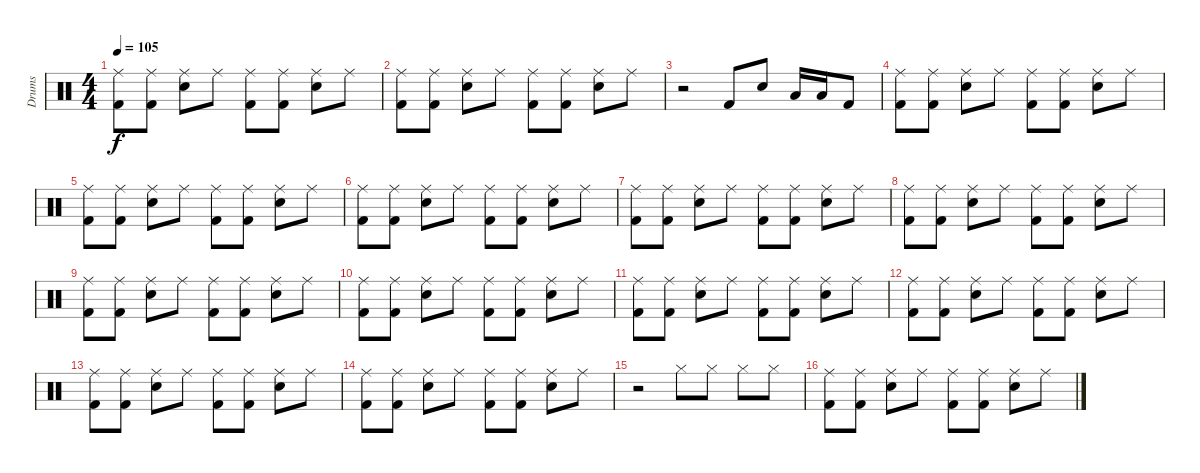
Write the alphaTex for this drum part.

\track ("Drums" "Drums") {instrument percussion}
\staff {score}
\articulation defaults
\ts (4 4)
\tempo 105
\clef neutral
\ks c
("Ride (middle)" "Kick (hit) 2").8{dy f} ("Ride (middle)" "Kick (hit) 2").8 ("Ride (middle)" "Snare (hit) 2").8 "Ride (middle)".8 ("Ride (middle)" "Kick (hit) 2").8 ("Ride (middle)" "Kick (hit) 2").8 ("Ride (middle)" "Snare (hit) 2").8 "Ride (middle)".8 |
("Ride (middle)" "Kick (hit) 2").8 ("Ride (middle)" "Kick (hit) 2").8 ("Ride (middle)" "Snare (hit) 2").8 "Ride (middle)".8 ("Ride (middle)" "Kick (hit) 2").8 ("Ride (middle)" "Kick (hit) 2").8 ("Ride (middle)" "Snare (hit) 2").8 "Ride (middle)".8 |
r.2 "Kick (hit) 2".8 "Snare (hit) 2".8 "Low Tom (hit)".16 "Low Tom (hit)".16 "Kick (hit) 2".8 |
("Ride (middle)" "Kick (hit) 2").8 ("Ride (middle)" "Kick (hit) 2").8 ("Ride (middle)" "Snare (hit) 2").8 "Ride (middle)".8 ("Ride (middle)" "Kick (hit) 2").8 ("Ride (middle)" "Kick (hit) 2").8 ("Ride (middle)" "Snare (hit) 2").8 "Ride (middle)".8 |
("Ride (middle)" "Kick (hit) 2").8 ("Ride (middle)" "Kick (hit) 2").8 ("Ride (middle)" "Snare (hit) 2").8 "Ride (middle)".8 ("Ride (middle)" "Kick (hit) 2").8 ("Ride (middle)" "Kick (hit) 2").8 ("Ride (middle)" "Snare (hit) 2").8 "Ride (middle)".8 |
("Ride (middle)" "Kick (hit) 2").8 ("Ride (middle)" "Kick (hit) 2").8 ("Ride (middle)" "Snare (hit) 2").8 "Ride (middle)".8 ("Ride (middle)" "Kick (hit) 2").8 ("Ride (middle)" "Kick (hit) 2").8 ("Ride (middle)" "Snare (hit) 2").8 "Ride (middle)".8 |
("Ride (middle)" "Kick (hit) 2").8 ("Ride (middle)" "Kick (hit) 2").8 ("Ride (middle)" "Snare (hit) 2").8 "Ride (middle)".8 ("Ride (middle)" "Kick (hit) 2").8 ("Ride (middle)" "Kick (hit) 2").8 ("Ride (middle)" "Snare (hit) 2").8 "Ride (middle)".8 |
("Ride (middle)" "Kick (hit) 2").8 ("Ride (middle)" "Kick (hit) 2").8 ("Ride (middle)" "Snare (hit) 2").8 "Ride (middle)".8 ("Ride (middle)" "Kick (hit) 2").8 ("Ride (middle)" "Kick (hit) 2").8 ("Ride (middle)" "Snare (hit) 2").8 "Ride (middle)".8 |
("Ride (middle)" "Kick (hit) 2").8 ("Ride (middle)" "Kick (hit) 2").8 ("Ride (middle)" "Snare (hit) 2").8 "Ride (middle)".8 ("Ride (middle)" "Kick (hit) 2").8 ("Ride (middle)" "Kick (hit) 2").8 ("Ride (middle)" "Snare (hit) 2").8 "Ride (middle)".8 |
("Ride (middle)" "Kick (hit) 2").8 ("Ride (middle)" "Kick (hit) 2").8 ("Ride (middle)" "Snare (hit) 2").8 "Ride (middle)".8 ("Ride (middle)" "Kick (hit) 2").8 ("Ride (middle)" "Kick (hit) 2").8 ("Ride (middle)" "Snare (hit) 2").8 "Ride (middle)".8 |
("Ride (middle)" "Kick (hit) 2").8 ("Ride (middle)" "Kick (hit) 2").8 ("Ride (middle)" "Snare (hit) 2").8 "Ride (middle)".8 ("Ride (middle)" "Kick (hit) 2").8 ("Ride (middle)" "Kick (hit) 2").8 ("Ride (middle)" "Snare (hit) 2").8 "Ride (middle)".8 |
("Ride (middle)" "Kick (hit) 2").8 ("Ride (middle)" "Kick (hit) 2").8 ("Ride (middle)" "Snare (hit) 2").8 "Ride (middle)".8 ("Ride (middle)" "Kick (hit) 2").8 ("Ride (middle)" "Kick (hit) 2").8 ("Ride (middle)" "Snare (hit) 2").8 "Ride (middle)".8 |
("Ride (middle)" "Kick (hit) 2").8 ("Ride (middle)" "Kick (hit) 2").8 ("Ride (middle)" "Snare (hit) 2").8 "Ride (middle)".8 ("Ride (middle)" "Kick (hit) 2").8 ("Ride (middle)" "Kick (hit) 2").8 ("Ride (middle)" "Snare (hit) 2").8 "Ride (middle)".8 |
("Ride (middle)" "Kick (hit) 2").8 ("Ride (middle)" "Kick (hit) 2").8 ("Ride (middle)" "Snare (hit) 2").8 "Ride (middle)".8 ("Ride (middle)" "Kick (hit) 2").8 ("Ride (middle)" "Kick (hit) 2").8 ("Ride (middle)" "Snare (hit) 2").8 "Ride (middle)".8 |
r.2 "Hi-Hat (closed)".8 "Hi-Hat (closed)".8 "Hi-Hat (closed)".8 "Hi-Hat (closed)".8 |
("Ride (middle)" "Kick (hit) 2").8 ("Ride (middle)" "Kick (hit) 2").8 ("Ride (middle)" "Snare (hit) 2").8 "Ride (middle)".8 ("Ride (middle)" "Kick (hit) 2").8 ("Ride (middle)" "Kick (hit) 2").8 ("Ride (middle)" "Snare (hit) 2").8 "Ride (middle)".8
